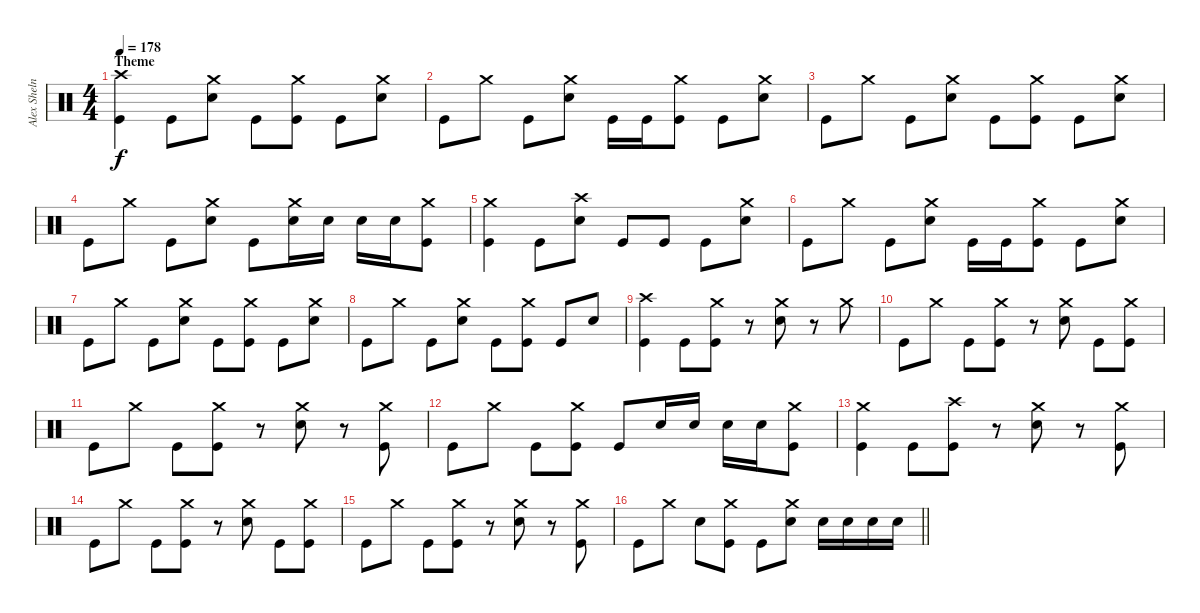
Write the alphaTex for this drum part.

\track ("Alex Shelnut" "Alex Sheln") {instrument percussion}
\staff {score}
\articulation defaults
\ts (4 4)
\section ("" "Theme")
\tempo 178
\clef neutral
\ks c
("Crash high (hit)" "Kick (hit)").4{dy f} "Kick (hit)".8 ("Crash medium (hit)" "Electric Snare (hit)").8 "Kick (hit)".8 ("Crash medium (hit)" "Kick (hit)").8 "Kick (hit)".8 ("Crash medium (hit)" "Electric Snare (hit)").8 |
"Kick (hit)".8 "Crash medium (hit)".8 "Kick (hit)".8 ("Crash medium (hit)" "Electric Snare (hit)").8 "Kick (hit)".16 "Kick (hit)".16 ("Crash medium (hit)" "Kick (hit)").8 "Kick (hit)".8 ("Crash medium (hit)" "Electric Snare (hit)").8 |
"Kick (hit)".8 "Crash medium (hit)".8 "Kick (hit)".8 ("Crash medium (hit)" "Electric Snare (hit)").8 "Kick (hit)".8 ("Crash medium (hit)" "Kick (hit)").8 "Kick (hit)".8 ("Crash medium (hit)" "Electric Snare (hit)").8 |
"Kick (hit)".8 "Crash medium (hit)".8 "Kick (hit)".8 ("Crash medium (hit)" "Electric Snare (hit)").8 "Kick (hit)".8 ("Crash medium (hit)" "Electric Snare (hit)").16 "Electric Snare (hit)".16 "Electric Snare (hit)".16 "Electric Snare (hit)".16 ("Crash medium (hit)" "Kick (hit)").8 |
("Crash medium (hit)" "Kick (hit)").4 "Kick (hit)".8 ("Crash high (hit)" "Electric Snare (hit)").8 "Kick (hit)".8 "Kick (hit)".8 "Kick (hit)".8 ("Crash medium (hit)" "Electric Snare (hit)").8 |
"Kick (hit)".8 "Crash medium (hit)".8 "Kick (hit)".8 ("Crash medium (hit)" "Electric Snare (hit)").8 "Kick (hit)".16 "Kick (hit)".16 ("Crash medium (hit)" "Kick (hit)").8 "Kick (hit)".8 ("Crash medium (hit)" "Electric Snare (hit)").8 |
"Kick (hit)".8 "Crash medium (hit)".8 "Kick (hit)".8 ("Crash medium (hit)" "Electric Snare (hit)").8 "Kick (hit)".8 ("Crash medium (hit)" "Kick (hit)").8 "Kick (hit)".8 ("Crash medium (hit)" "Electric Snare (hit)").8 |
"Kick (hit)".8 "Crash medium (hit)".8 "Kick (hit)".8 ("Crash medium (hit)" "Electric Snare (hit)").8 "Kick (hit)".8 ("Crash medium (hit)" "Kick (hit)").8 "Kick (hit)".8 "Electric Snare (hit)".8 |
("Crash high (hit)" "Kick (hit)").4 "Kick (hit)".8 ("Crash medium (hit)" "Kick (hit)").8 r.8 ("Crash medium (hit)" "Electric Snare (hit)").8 r.8 "Crash medium (hit)".8 |
"Kick (hit)".8 "Crash medium (hit)".8 "Kick (hit)".8 ("Crash medium (hit)" "Kick (hit)").8 r.8 ("Crash medium (hit)" "Electric Snare (hit)").8 "Kick (hit)".8 ("Crash medium (hit)" "Kick (hit)").8 |
"Kick (hit)".8 "Crash medium (hit)".8 "Kick (hit)".8 ("Crash medium (hit)" "Kick (hit)").8 r.8 ("Crash medium (hit)" "Electric Snare (hit)").8 r.8 ("Crash medium (hit)" "Kick (hit)").8 |
"Kick (hit)".8 "Crash medium (hit)".8 "Kick (hit)".8 ("Crash medium (hit)" "Kick (hit)").8 "Kick (hit)".8 "Electric Snare (hit)".16 "Electric Snare (hit)".16 "Electric Snare (hit)".16 "Electric Snare (hit)".16 ("Crash medium (hit)" "Kick (hit)").8 |
("Crash medium (hit)" "Kick (hit)").4 "Kick (hit)".8 ("Crash high (hit)" "Kick (hit)").8 r.8 ("Crash medium (hit)" "Electric Snare (hit)").8 r.8 ("Crash medium (hit)" "Kick (hit)").8 |
"Kick (hit)".8 "Crash medium (hit)".8 "Kick (hit)".8 ("Crash medium (hit)" "Kick (hit)").8 r.8 ("Crash medium (hit)" "Electric Snare (hit)").8 "Kick (hit)".8 ("Crash medium (hit)" "Kick (hit)").8 |
"Kick (hit)".8 "Crash medium (hit)".8 "Kick (hit)".8 ("Crash medium (hit)" "Kick (hit)").8 r.8 ("Crash medium (hit)" "Electric Snare (hit)").8 r.8 ("Crash medium (hit)" "Kick (hit)").8 |
\barLineRight lightlight "Kick (hit)".8 "Crash medium (hit)".8 "Electric Snare (hit)".8
("Crash medium (hit)" "Kick (hit)").8 "Kick (hit)".8 ("Crash medium (hit)" "Electric Snare (hit)").8 "Electric Snare (hit)".16 "Electric Snare (hit)".16 "Electric Snare (hit)".16 "Electric Snare (hit)".16
